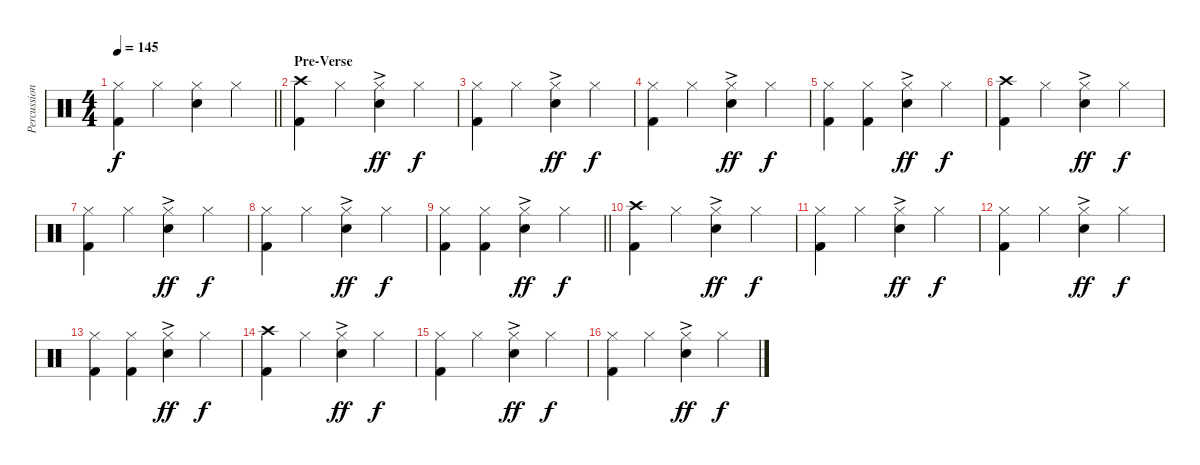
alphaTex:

\track ("Percussion" "Percussion") {instrument percussion}
\staff {score}
\articulation defaults
\ts (4 4)
\tempo 145
\clef neutral
\barLineRight lightlight
\ks c
("Hi-Hat (closed)" "Kick (hit) 2").4{dy f} "Hi-Hat (closed)".4 ("Hi-Hat (closed)" "Electric Snare (hit)").4 "Hi-Hat (closed)".4 |
\section ("" "Pre-Verse")
("Crash high (hit)" "Kick (hit) 2").4 "Hi-Hat (closed)".4 ("Hi-Hat (closed)" "Electric Snare (hit)"{ac}).4{dy ff} "Hi-Hat (closed)".4{dy f} |
("Hi-Hat (closed)" "Kick (hit) 2").4 "Hi-Hat (closed)".4 ("Hi-Hat (closed)" "Electric Snare (hit)"{ac}).4{dy ff} "Hi-Hat (closed)".4{dy f} |
("Hi-Hat (closed)" "Kick (hit) 2").4 "Hi-Hat (closed)".4 ("Hi-Hat (closed)" "Electric Snare (hit)"{ac}).4{dy ff} "Hi-Hat (closed)".4{dy f} |
("Hi-Hat (closed)" "Kick (hit) 2").4 ("Hi-Hat (closed)" "Kick (hit) 2").4 ("Hi-Hat (closed)" "Electric Snare (hit)"{ac}).4{dy ff} "Hi-Hat (closed)".4{dy f} |
("Crash high (hit)" "Kick (hit) 2").4 "Hi-Hat (closed)".4 ("Hi-Hat (closed)" "Electric Snare (hit)"{ac}).4{dy ff} "Hi-Hat (closed)".4{dy f} |
("Hi-Hat (closed)" "Kick (hit) 2").4 "Hi-Hat (closed)".4 ("Hi-Hat (closed)" "Electric Snare (hit)"{ac}).4{dy ff} "Hi-Hat (closed)".4{dy f} |
("Hi-Hat (closed)" "Kick (hit) 2").4 "Hi-Hat (closed)".4 ("Hi-Hat (closed)" "Electric Snare (hit)"{ac}).4{dy ff} "Hi-Hat (closed)".4{dy f} |
\barLineRight lightlight
("Hi-Hat (closed)" "Kick (hit) 2").4 ("Hi-Hat (closed)" "Kick (hit) 2").4 ("Hi-Hat (closed)" "Electric Snare (hit)"{ac}).4{dy ff} "Hi-Hat (closed)".4{dy f} |
("Crash high (hit)" "Kick (hit) 2").4 "Hi-Hat (closed)".4 ("Hi-Hat (closed)" "Electric Snare (hit)"{ac}).4{dy ff} "Hi-Hat (closed)".4{dy f} |
("Hi-Hat (closed)" "Kick (hit) 2").4 "Hi-Hat (closed)".4 ("Hi-Hat (closed)" "Electric Snare (hit)"{ac}).4{dy ff} "Hi-Hat (closed)".4{dy f} |
("Hi-Hat (closed)" "Kick (hit) 2").4 "Hi-Hat (closed)".4 ("Hi-Hat (closed)" "Electric Snare (hit)"{ac}).4{dy ff} "Hi-Hat (closed)".4{dy f} |
("Hi-Hat (closed)" "Kick (hit) 2").4 ("Hi-Hat (closed)" "Kick (hit) 2").4 ("Hi-Hat (closed)" "Electric Snare (hit)"{ac}).4{dy ff} "Hi-Hat (closed)".4{dy f} |
("Crash high (hit)" "Kick (hit) 2").4 "Hi-Hat (closed)".4 ("Hi-Hat (closed)" "Electric Snare (hit)"{ac}).4{dy ff} "Hi-Hat (closed)".4{dy f} |
("Hi-Hat (closed)" "Kick (hit) 2").4 "Hi-Hat (closed)".4 ("Hi-Hat (closed)" "Electric Snare (hit)"{ac}).4{dy ff} "Hi-Hat (closed)".4{dy f} |
("Hi-Hat (closed)" "Kick (hit) 2").4 "Hi-Hat (closed)".4 ("Hi-Hat (closed)" "Electric Snare (hit)"{ac}).4{dy ff} "Hi-Hat (closed)".4{dy f}
